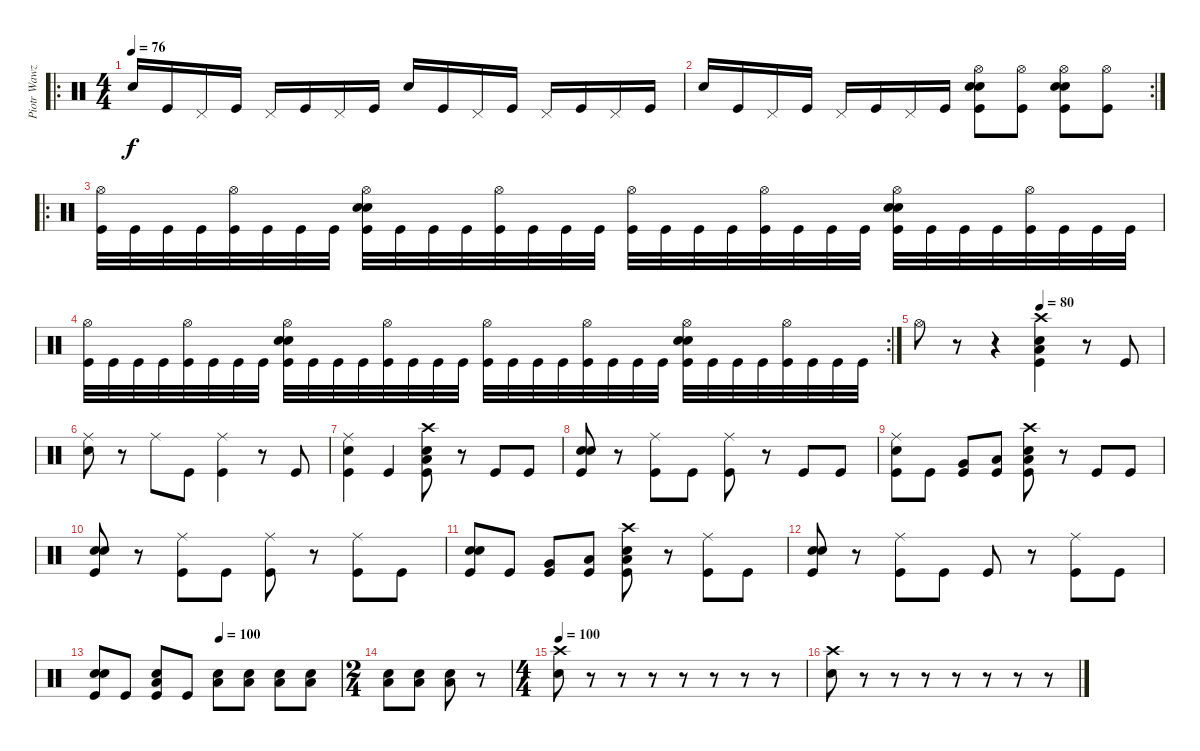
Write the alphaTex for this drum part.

\track ("Piotr Wawzeniuk (Drums)" "Piotr Wawz") {instrument percussion}
\staff {score}
\articulation defaults
\ro
\ts (4 4)
\tempo 76
\clef neutral
\ks c "Electric Snare (hit)".16{dy f} "Kick (hit)".16 "Pedal Hi-Hat (hit)".16 "Kick (hit)".16 "Pedal Hi-Hat (hit)".16 "Kick (hit)".16 "Pedal Hi-Hat (hit)".16 "Kick (hit)".16 "Electric Snare (hit)".16 "Kick (hit)".16 "Pedal Hi-Hat (hit)".16 "Kick (hit)".16 "Pedal Hi-Hat (hit)".16 "Kick (hit)".16 "Pedal Hi-Hat (hit)".16 "Kick (hit)".16
|
\rc 2 "Electric Snare (hit)".16 "Kick (hit)".16 "Pedal Hi-Hat (hit)".16 "Kick (hit)".16 "Pedal Hi-Hat (hit)".16 "Kick (hit)".16 "Pedal Hi-Hat (hit)".16 "Kick (hit)".16
("Kick (hit)" "Hi-Hat (open)" "Electric Snare (hit)" "Electric Snare (hit)").8 ("Kick (hit)" "Hi-Hat (open)").8 ("Kick (hit)" "Hi-Hat (open)" "Electric Snare (hit)" "Electric Snare (hit)").8 ("Kick (hit)" "Hi-Hat (open)").8 |
\ro
("Kick (hit)" "Hi-Hat (open)").32 "Kick (hit)".32 "Kick (hit)".32 "Kick (hit)".32 ("Kick (hit)" "Hi-Hat (open)").32 "Kick (hit)".32 "Kick (hit)".32 "Kick (hit)".32 ("Kick (hit)" "Hi-Hat (open)" "Electric Snare (hit)" "Electric Snare (hit)").32 "Kick (hit)".32 "Kick (hit)".32 "Kick (hit)".32 ("Kick (hit)" "Hi-Hat (open)").32 "Kick (hit)".32 "Kick (hit)".32 "Kick (hit)".32 ("Kick (hit)" "Hi-Hat (open)").32 "Kick (hit)".32 "Kick (hit)".32 "Kick (hit)".32 ("Kick (hit)" "Hi-Hat (open)").32 "Kick (hit)".32 "Kick (hit)".32 "Kick (hit)".32 ("Kick (hit)" "Hi-Hat (open)" "Electric Snare (hit)" "Electric Snare (hit)").32 "Kick (hit)".32 "Kick (hit)".32 "Kick (hit)".32 ("Kick (hit)" "Hi-Hat (open)").32 "Kick (hit)".32 "Kick (hit)".32 "Kick (hit)".32 |
\rc 2
("Kick (hit)" "Hi-Hat (open)").32 "Kick (hit)".32 "Kick (hit)".32 "Kick (hit)".32 ("Kick (hit)" "Hi-Hat (open)").32 "Kick (hit)".32 "Kick (hit)".32 "Kick (hit)".32 ("Kick (hit)" "Hi-Hat (open)" "Electric Snare (hit)" "Electric Snare (hit)").32 "Kick (hit)".32 "Kick (hit)".32 "Kick (hit)".32 ("Kick (hit)" "Hi-Hat (open)").32 "Kick (hit)".32 "Kick (hit)".32 "Kick (hit)".32 ("Kick (hit)" "Hi-Hat (open)").32 "Kick (hit)".32 "Kick (hit)".32 "Kick (hit)".32 ("Kick (hit)" "Hi-Hat (open)").32 "Kick (hit)".32 "Kick (hit)".32 "Kick (hit)".32 ("Kick (hit)" "Hi-Hat (open)" "Electric Snare (hit)" "Electric Snare (hit)").32 "Kick (hit)".32 "Kick (hit)".32 "Kick (hit)".32 ("Kick (hit)" "Hi-Hat (open)").32 "Kick (hit)".32 "Kick (hit)".32 "Kick (hit)".32 |
\tempo (80 0.5)
"Hi-Hat (open)".8 r.8 r.4 ("Crash high (hit)" "Low Floor Tom (hit)" "Electric Snare (hit)" "Kick (hit)").4 r.8 "Kick (hit)".8 |
("Ride (middle)" "Electric Snare (hit)").8 r.8 "Ride (middle)".8 "Kick (hit)".8 ("Ride (middle)" "Kick (hit)").4 r.8 "Kick (hit)".8 |
("Ride (middle)" "Electric Snare (hit)" "Kick (hit)").4 "Kick (hit)".4 ("Crash high (hit)" "Low Floor Tom (hit)" "Electric Snare (hit)" "Kick (hit)").8 r.8 "Kick (hit)".8 "Kick (hit)".8 |
("Electric Snare (hit)" "Electric Snare (hit)" "Kick (hit)").8 r.8 ("Ride (middle)" "Kick (hit)").8 "Kick (hit)".8 ("Ride (middle)" "Kick (hit)").8 r.8 "Kick (hit)".8 "Kick (hit)".8 |
("Ride (middle)" "Electric Snare (hit)" "Kick (hit)").8 "Kick (hit)".8 ("Very Low Tom (hit)" "Kick (hit)").8 ("Low Floor Tom (hit)" "Kick (hit)").8 ("Crash high (hit)" "Low Floor Tom (hit)" "Electric Snare (hit)" "Kick (hit)").8 r.8 "Kick (hit)".8 "Kick (hit)".8 |
("Electric Snare (hit)" "Electric Snare (hit)" "Kick (hit)").8 r.8 ("Ride (middle)" "Kick (hit)").8 "Kick (hit)".8 ("Ride (middle)" "Kick (hit)").8 r.8 ("Ride (middle)" "Kick (hit)").8 "Kick (hit)".8 |
("Electric Snare (hit)" "Electric Snare (hit)" "Kick (hit)").8 "Kick (hit)".8 ("Very Low Tom (hit)" "Kick (hit)").8 ("Low Floor Tom (hit)" "Kick (hit)").8 ("Crash high (hit)" "Low Floor Tom (hit)" "Electric Snare (hit)" "Kick (hit)").8 r.8 ("Ride (middle)" "Kick (hit)").8 "Kick (hit)".8 |
("Electric Snare (hit)" "Electric Snare (hit)" "Kick (hit)").8 r.8 ("Ride (middle)" "Kick (hit)").8 "Kick (hit)".8 "Kick (hit)".8 r.8 ("Ride (middle)" "Kick (hit)").8 "Kick (hit)".8 |
\tempo (100 0.5)
("Electric Snare (hit)" "Electric Snare (hit)" "Kick (hit)").8 "Kick (hit)".8 ("Low Floor Tom (hit)" "Electric Snare (hit)" "Kick (hit)").8 "Kick (hit)".8 ("Low Tom (hit)" "Electric Snare (hit)").8 ("Low Tom (hit)" "Electric Snare (hit)").8 ("Low Tom (hit)" "Electric Snare (hit)").8 ("Low Tom (hit)" "Electric Snare (hit)").8 |
\ts (2 4)
("Low Tom (hit)" "Electric Snare (hit)").8 ("Low Tom (hit)" "Electric Snare (hit)").8 ("Low Tom (hit)" "Electric Snare (hit)").8 r.8 |
\ts (4 4)
\tempo 100
("Crash high (hit)" "Electric Snare (hit)").8 r.8 r.8 r.8 r.8 r.8 r.8 r.8 |
("Crash high (hit)" "Electric Snare (hit)").8 r.8 r.8 r.8 r.8 r.8 r.8 r.8
